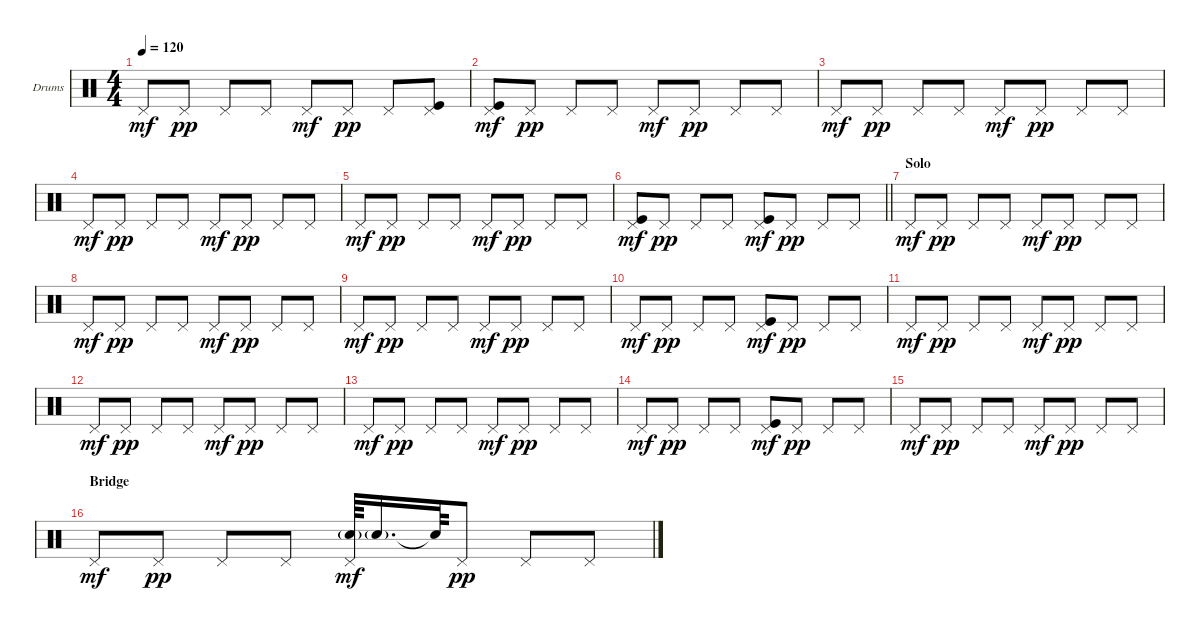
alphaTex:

\defaultSystemsLayout 4
\bracketExtendMode groupsimilarinstruments
\firstSystemTrackNameOrientation horizontal
\otherSystemsTrackNameOrientation horizontal
\track ("Drumkit" "Drums") {instrument percussion}
\staff {score}
\articulation defaults
\ts (4 4)
\tempo 120
\clef neutral
\scale
0.333333
\ks aminor "Pedal Hi-Hat (hit)".8{dy mf} "Pedal Hi-Hat (hit)".8{dy pp} "Pedal Hi-Hat (hit)".8 "Pedal Hi-Hat (hit)".8 "Pedal Hi-Hat (hit)".8{dy mf} "Pedal Hi-Hat (hit)".8{dy pp} "Pedal Hi-Hat (hit)".8
("Pedal Hi-Hat (hit)" "Kick (hit)").8 |
\scale
0.333333 ("Pedal Hi-Hat (hit)" "Kick (hit)").8{dy mf} "Pedal Hi-Hat (hit)".8{dy pp} "Pedal Hi-Hat (hit)".8 "Pedal Hi-Hat (hit)".8 "Pedal Hi-Hat (hit)".8{dy mf} "Pedal Hi-Hat (hit)".8{dy pp} "Pedal Hi-Hat (hit)".8 "Pedal Hi-Hat (hit)".8 |
\scale
0.333333 "Pedal Hi-Hat (hit)".8{dy mf} "Pedal Hi-Hat (hit)".8{dy pp} "Pedal Hi-Hat (hit)".8 "Pedal Hi-Hat (hit)".8 "Pedal Hi-Hat (hit)".8{dy mf} "Pedal Hi-Hat (hit)".8{dy pp} "Pedal Hi-Hat (hit)".8 "Pedal Hi-Hat (hit)".8 |
\scale
0.333333 "Pedal Hi-Hat (hit)".8{dy mf} "Pedal Hi-Hat (hit)".8{dy pp} "Pedal Hi-Hat (hit)".8 "Pedal Hi-Hat (hit)".8 "Pedal Hi-Hat (hit)".8{dy mf} "Pedal Hi-Hat (hit)".8{dy pp} "Pedal Hi-Hat (hit)".8 "Pedal Hi-Hat (hit)".8 |
\scale
0.333333 "Pedal Hi-Hat (hit)".8{dy mf} "Pedal Hi-Hat (hit)".8{dy pp} "Pedal Hi-Hat (hit)".8 "Pedal Hi-Hat (hit)".8 "Pedal Hi-Hat (hit)".8{dy mf} "Pedal Hi-Hat (hit)".8{dy pp} "Pedal Hi-Hat (hit)".8 "Pedal Hi-Hat (hit)".8 |
\scale
0.333333
\barLineRight lightlight
("Pedal Hi-Hat (hit)" "Kick (hit)").8{dy mf} "Pedal Hi-Hat (hit)".8{dy pp} "Pedal Hi-Hat (hit)".8 "Pedal Hi-Hat (hit)".8 ("Pedal Hi-Hat (hit)" "Kick (hit)").8{dy mf} "Pedal Hi-Hat (hit)".8{dy pp} "Pedal Hi-Hat (hit)".8 "Pedal Hi-Hat (hit)".8 |
\section ("" "Solo")
"Pedal Hi-Hat (hit)".8{dy mf} "Pedal Hi-Hat (hit)".8{dy pp} "Pedal Hi-Hat (hit)".8 "Pedal Hi-Hat (hit)".8 "Pedal Hi-Hat (hit)".8{dy mf} "Pedal Hi-Hat (hit)".8{dy pp} "Pedal Hi-Hat (hit)".8 "Pedal Hi-Hat (hit)".8 |
"Pedal Hi-Hat (hit)".8{dy mf} "Pedal Hi-Hat (hit)".8{dy pp} "Pedal Hi-Hat (hit)".8 "Pedal Hi-Hat (hit)".8 "Pedal Hi-Hat (hit)".8{dy mf} "Pedal Hi-Hat (hit)".8{dy pp} "Pedal Hi-Hat (hit)".8 "Pedal Hi-Hat (hit)".8 |
"Pedal Hi-Hat (hit)".8{dy mf} "Pedal Hi-Hat (hit)".8{dy pp} "Pedal Hi-Hat (hit)".8 "Pedal Hi-Hat (hit)".8 "Pedal Hi-Hat (hit)".8{dy mf} "Pedal Hi-Hat (hit)".8{dy pp} "Pedal Hi-Hat (hit)".8 "Pedal Hi-Hat (hit)".8 |
"Pedal Hi-Hat (hit)".8{dy mf} "Pedal Hi-Hat (hit)".8{dy pp} "Pedal Hi-Hat (hit)".8 "Pedal Hi-Hat (hit)".8 ("Pedal Hi-Hat (hit)" "Kick (hit)").8{dy mf} "Pedal Hi-Hat (hit)".8{dy pp} "Pedal Hi-Hat (hit)".8 "Pedal Hi-Hat (hit)".8 |
"Pedal Hi-Hat (hit)".8{dy mf} "Pedal Hi-Hat (hit)".8{dy pp} "Pedal Hi-Hat (hit)".8 "Pedal Hi-Hat (hit)".8 "Pedal Hi-Hat (hit)".8{dy mf} "Pedal Hi-Hat (hit)".8{dy pp} "Pedal Hi-Hat (hit)".8 "Pedal Hi-Hat (hit)".8 |
"Pedal Hi-Hat (hit)".8{dy mf} "Pedal Hi-Hat (hit)".8{dy pp} "Pedal Hi-Hat (hit)".8 "Pedal Hi-Hat (hit)".8 "Pedal Hi-Hat (hit)".8{dy mf} "Pedal Hi-Hat (hit)".8{dy pp} "Pedal Hi-Hat (hit)".8 "Pedal Hi-Hat (hit)".8 |
"Pedal Hi-Hat (hit)".8{dy mf} "Pedal Hi-Hat (hit)".8{dy pp} "Pedal Hi-Hat (hit)".8 "Pedal Hi-Hat (hit)".8 "Pedal Hi-Hat (hit)".8{dy mf} "Pedal Hi-Hat (hit)".8{dy pp} "Pedal Hi-Hat (hit)".8 "Pedal Hi-Hat (hit)".8 |
"Pedal Hi-Hat (hit)".8{dy mf} "Pedal Hi-Hat (hit)".8{dy pp} "Pedal Hi-Hat (hit)".8 "Pedal Hi-Hat (hit)".8 ("Pedal Hi-Hat (hit)" "Kick (hit)").8{dy mf} "Pedal Hi-Hat (hit)".8{dy pp} "Pedal Hi-Hat (hit)".8 "Pedal Hi-Hat (hit)".8 |
"Pedal Hi-Hat (hit)".8{dy mf} "Pedal Hi-Hat (hit)".8{dy pp} "Pedal Hi-Hat (hit)".8 "Pedal Hi-Hat (hit)".8 "Pedal Hi-Hat (hit)".8{dy mf} "Pedal Hi-Hat (hit)".8{dy pp} "Pedal Hi-Hat (hit)".8 "Pedal Hi-Hat (hit)".8 |
\section ("" "Bridge")
\scale
0.333333 "Pedal Hi-Hat (hit)".8{dy mf} "Pedal Hi-Hat (hit)".8{dy pp} "Pedal Hi-Hat (hit)".8 "Pedal Hi-Hat (hit)".8 ("Pedal Hi-Hat (hit)" "Snare (hit) 2"{g}).64{dy mf} "Snare (hit) 2"{g}.16{d} "Snare (hit) 2"{t}.64 "Pedal Hi-Hat (hit)".8{dy pp} "Pedal Hi-Hat (hit)".8 "Pedal Hi-Hat (hit)".8
